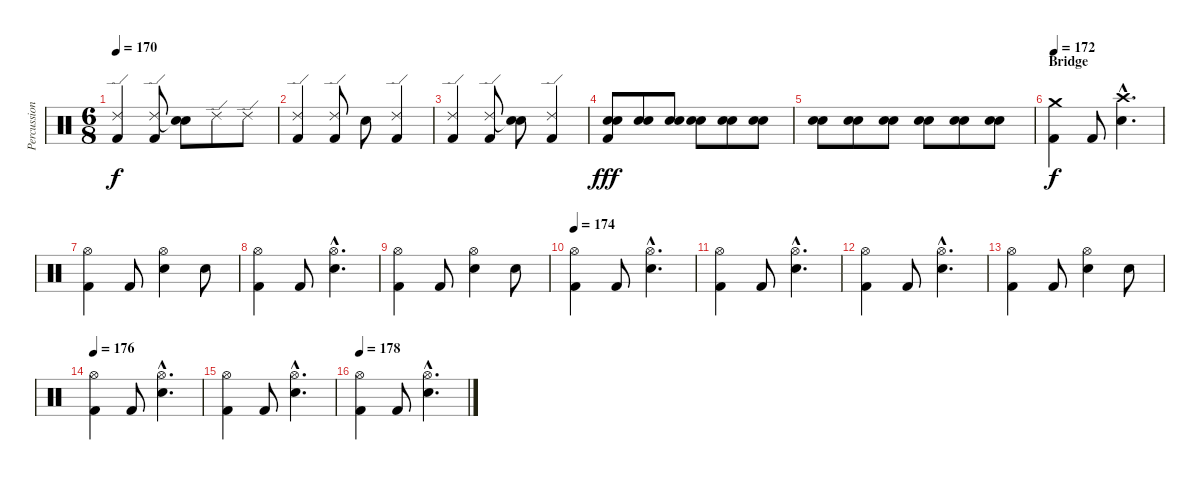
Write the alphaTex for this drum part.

\track ("Percussion" "Percussion") {instrument percussion}
\staff {score}
\articulation defaults
\ts (6 8)
\tempo 170
\clef neutral
\ks c
("Ride (edge) 2" "Kick (hit) 2").4{dy f} ("Ride (edge) 2" "Kick (hit) 2").8 ("Snare (hit)"{t} "Electric Snare (hit)").8 "Ride (edge) 2".8 "Ride (edge) 2".8 |
("Ride (edge) 2" "Kick (hit) 2").4 ("Ride (edge) 2" "Kick (hit) 2").8 "Electric Snare (hit)".8 ("Ride (edge) 2" "Kick (hit) 2").4 |
("Ride (edge) 2" "Kick (hit) 2").4 ("Ride (edge) 2" "Kick (hit) 2").8 ("Snare (hit)"{t} "Electric Snare (hit)").8 ("Ride (edge) 2" "Kick (hit) 2").4 |
("Electric Snare (hit)" "Electric Snare (hit)" "Kick (hit) 2").8{dy fff} ("Electric Snare (hit)" "Electric Snare (hit)").8 ("Electric Snare (hit)" "Electric Snare (hit)").8 ("Electric Snare (hit)" "Electric Snare (hit)").8 ("Electric Snare (hit)" "Electric Snare (hit)").8 ("Electric Snare (hit)" "Electric Snare (hit)").8 |
("Electric Snare (hit)" "Electric Snare (hit)").8 ("Electric Snare (hit)" "Electric Snare (hit)").8 ("Electric Snare (hit)" "Electric Snare (hit)").8 ("Electric Snare (hit)" "Electric Snare (hit)").8 ("Electric Snare (hit)" "Electric Snare (hit)").8 ("Electric Snare (hit)" "Electric Snare (hit)").8 |
\section ("" "Bridge")
\tempo 172
("Crash medium (hit)" "Kick (hit) 2").4{dy f} "Kick (hit) 2".8 ("Crash high (hit)"{hac} "Electric Snare (hit)"{hac}).4{d} |
("Hi-Hat (open)" "Kick (hit) 2").4 "Kick (hit) 2".8 ("Hi-Hat (open)" "Electric Snare (hit)").4 "Electric Snare (hit)".8 |
("Hi-Hat (open)" "Kick (hit) 2").4 "Kick (hit) 2".8 ("Hi-Hat (open)"{hac} "Electric Snare (hit)"{hac}).4{d} |
("Hi-Hat (open)" "Kick (hit) 2").4 "Kick (hit) 2".8 ("Hi-Hat (open)" "Electric Snare (hit)").4 "Electric Snare (hit)".8 |
\tempo 174
("Hi-Hat (open)" "Kick (hit) 2").4 "Kick (hit) 2".8 ("Hi-Hat (open)"{hac} "Electric Snare (hit)"{hac}).4{d} |
("Hi-Hat (open)" "Kick (hit) 2").4 "Kick (hit) 2".8 ("Hi-Hat (open)"{hac} "Electric Snare (hit)"{hac}).4{d} |
("Hi-Hat (open)" "Kick (hit) 2").4 "Kick (hit) 2".8 ("Hi-Hat (open)"{hac} "Electric Snare (hit)"{hac}).4{d} |
("Hi-Hat (open)" "Kick (hit) 2").4 "Kick (hit) 2".8 ("Hi-Hat (open)" "Electric Snare (hit)").4 "Electric Snare (hit)".8 |
\tempo 176
("Hi-Hat (open)" "Kick (hit) 2").4 "Kick (hit) 2".8 ("Hi-Hat (open)"{hac} "Electric Snare (hit)"{hac}).4{d} |
("Hi-Hat (open)" "Kick (hit) 2").4 "Kick (hit) 2".8 ("Hi-Hat (open)"{hac} "Electric Snare (hit)"{hac}).4{d} |
\tempo 178
("Hi-Hat (open)" "Kick (hit) 2").4 "Kick (hit) 2".8 ("Hi-Hat (open)"{hac} "Electric Snare (hit)"{hac}).4{d}
